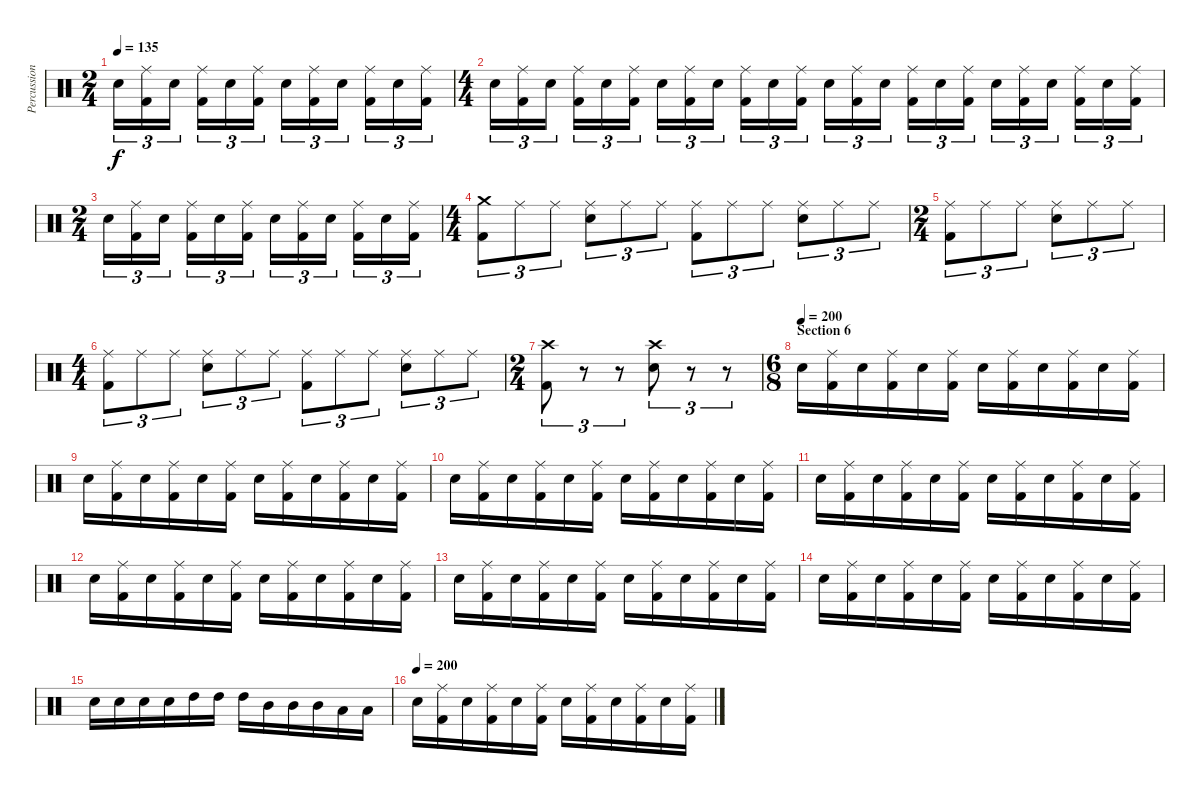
\track ("Percussion" "Percussion") {instrument percussion}
\staff {score}
\articulation defaults
\ts (2 4)
\tempo 135
\clef neutral
\ks c "Electric Snare (hit)".16{tu (3 2) dy f}
("Ride (middle)" "Kick (hit) 2").16{tu (3 2)} "Electric Snare (hit)".16{tu (3 2)} ("Ride (middle)" "Kick (hit) 2").16{tu (3 2)} "Electric Snare (hit)".16{tu (3 2)} ("Ride (middle)" "Kick (hit) 2").16{tu (3 2)} "Electric Snare (hit)".16{tu (3 2)} ("Ride (middle)" "Kick (hit) 2").16{tu (3 2)} "Electric Snare (hit)".16{tu (3 2)} ("Ride (middle)" "Kick (hit) 2").16{tu (3 2)} "Electric Snare (hit)".16{tu (3 2)} ("Ride (middle)" "Kick (hit) 2").16{tu (3 2)} |
\ts (4 4)
"Electric Snare (hit)".16{tu (3 2)} ("Ride (middle)" "Kick (hit) 2").16{tu (3 2)} "Electric Snare (hit)".16{tu (3 2)} ("Ride (middle)" "Kick (hit) 2").16{tu (3 2)} "Electric Snare (hit)".16{tu (3 2)} ("Ride (middle)" "Kick (hit) 2").16{tu (3 2)} "Electric Snare (hit)".16{tu (3 2)} ("Ride (middle)" "Kick (hit) 2").16{tu (3 2)} "Electric Snare (hit)".16{tu (3 2)} ("Ride (middle)" "Kick (hit) 2").16{tu (3 2)} "Electric Snare (hit)".16{tu (3 2)} ("Ride (middle)" "Kick (hit) 2").16{tu (3 2)} "Electric Snare (hit)".16{tu (3 2)} ("Ride (middle)" "Kick (hit) 2").16{tu (3 2)} "Electric Snare (hit)".16{tu (3 2)} ("Ride (middle)" "Kick (hit) 2").16{tu (3 2)} "Electric Snare (hit)".16{tu (3 2)} ("Ride (middle)" "Kick (hit) 2").16{tu (3 2)} "Electric Snare (hit)".16{tu (3 2)} ("Ride (middle)" "Kick (hit) 2").16{tu (3 2)} "Electric Snare (hit)".16{tu (3 2)} ("Ride (middle)" "Kick (hit) 2").16{tu (3 2)} "Electric Snare (hit)".16{tu (3 2)} ("Ride (middle)" "Kick (hit) 2").16{tu (3 2)} |
\ts (2 4)
"Electric Snare (hit)".16{tu (3 2)} ("Ride (middle)" "Kick (hit) 2").16{tu (3 2)} "Electric Snare (hit)".16{tu (3 2)} ("Ride (middle)" "Kick (hit) 2").16{tu (3 2)} "Electric Snare (hit)".16{tu (3 2)} ("Ride (middle)" "Kick (hit) 2").16{tu (3 2)} "Electric Snare (hit)".16{tu (3 2)} ("Ride (middle)" "Kick (hit) 2").16{tu (3 2)} "Electric Snare (hit)".16{tu (3 2)} ("Ride (middle)" "Kick (hit) 2").16{tu (3 2)} "Electric Snare (hit)".16{tu (3 2)} ("Ride (middle)" "Kick (hit) 2").16{tu (3 2)} |
\ts (4 4)
("Crash medium (hit)" "Kick (hit) 2").8{tu (3 2)} "Ride (middle)".8{tu (3 2)} "Ride (middle)".8{tu (3 2)} ("Ride (middle)" "Electric Snare (hit)").8{tu (3 2)} "Ride (middle)".8{tu (3 2)} "Ride (middle)".8{tu (3 2)} ("Ride (middle)" "Kick (hit) 2").8{tu (3 2)} "Ride (middle)".8{tu (3 2)} "Ride (middle)".8{tu (3 2)} ("Ride (middle)" "Electric Snare (hit)").8{tu (3 2)} "Ride (middle)".8{tu (3 2)} "Ride (middle)".8{tu (3 2)} |
\ts (2 4)
("Ride (middle)" "Kick (hit) 2").8{tu (3 2)} "Ride (middle)".8{tu (3 2)} "Ride (middle)".8{tu (3 2)} ("Ride (middle)" "Electric Snare (hit)").8{tu (3 2)} "Ride (middle)".8{tu (3 2)} "Ride (middle)".8{tu (3 2)} |
\ts (4 4)
("Ride (middle)" "Kick (hit) 2").8{tu (3 2)} "Ride (middle)".8{tu (3 2)} "Ride (middle)".8{tu (3 2)} ("Ride (middle)" "Electric Snare (hit)").8{tu (3 2)} "Ride (middle)".8{tu (3 2)} "Ride (middle)".8{tu (3 2)} ("Ride (middle)" "Kick (hit) 2").8{tu (3 2)} "Ride (middle)".8{tu (3 2)} "Ride (middle)".8{tu (3 2)} ("Ride (middle)" "Electric Snare (hit)").8{tu (3 2)} "Ride (middle)".8{tu (3 2)} "Ride (middle)".8{tu (3 2)} |
\ts (2 4)
("Crash high (hit)" "Kick (hit) 2").8{tu (3 2)} r.8{tu (3 2)} r.8{tu (3 2)} ("Crash high (hit)" "Electric Snare (hit)").8{tu (3 2)} r.8{tu (3 2)} r.8{tu (3 2)} |
\ts (6 8)
\section ("" "Section 6")
\tempo (200)
"Electric Snare (hit)".16 ("Ride (middle)" "Kick (hit) 2").16 "Electric Snare (hit)".16 ("Ride (middle)" "Kick (hit) 2").16 "Electric Snare (hit)".16 ("Ride (middle)" "Kick (hit) 2").16 "Electric Snare (hit)".16 ("Ride (middle)" "Kick (hit) 2").16 "Electric Snare (hit)".16 ("Ride (middle)" "Kick (hit) 2").16 "Electric Snare (hit)".16 ("Ride (middle)" "Kick (hit) 2").16 |
"Electric Snare (hit)".16 ("Ride (middle)" "Kick (hit) 2").16 "Electric Snare (hit)".16 ("Ride (middle)" "Kick (hit) 2").16 "Electric Snare (hit)".16 ("Ride (middle)" "Kick (hit) 2").16 "Electric Snare (hit)".16 ("Ride (middle)" "Kick (hit) 2").16 "Electric Snare (hit)".16 ("Ride (middle)" "Kick (hit) 2").16 "Electric Snare (hit)".16 ("Ride (middle)" "Kick (hit) 2").16 |
"Electric Snare (hit)".16 ("Ride (middle)" "Kick (hit) 2").16 "Electric Snare (hit)".16 ("Ride (middle)" "Kick (hit) 2").16 "Electric Snare (hit)".16 ("Ride (middle)" "Kick (hit) 2").16 "Electric Snare (hit)".16 ("Ride (middle)" "Kick (hit) 2").16 "Electric Snare (hit)".16 ("Ride (middle)" "Kick (hit) 2").16 "Electric Snare (hit)".16 ("Ride (middle)" "Kick (hit) 2").16 |
"Electric Snare (hit)".16 ("Ride (middle)" "Kick (hit) 2").16 "Electric Snare (hit)".16 ("Ride (middle)" "Kick (hit) 2").16 "Electric Snare (hit)".16 ("Ride (middle)" "Kick (hit) 2").16 "Electric Snare (hit)".16 ("Ride (middle)" "Kick (hit) 2").16 "Electric Snare (hit)".16 ("Ride (middle)" "Kick (hit) 2").16 "Electric Snare (hit)".16 ("Ride (middle)" "Kick (hit) 2").16 |
"Electric Snare (hit)".16 ("Ride (middle)" "Kick (hit) 2").16 "Electric Snare (hit)".16 ("Ride (middle)" "Kick (hit) 2").16 "Electric Snare (hit)".16 ("Ride (middle)" "Kick (hit) 2").16 "Electric Snare (hit)".16 ("Ride (middle)" "Kick (hit) 2").16 "Electric Snare (hit)".16 ("Ride (middle)" "Kick (hit) 2").16 "Electric Snare (hit)".16 ("Ride (middle)" "Kick (hit) 2").16 |
"Electric Snare (hit)".16 ("Ride (middle)" "Kick (hit) 2").16 "Electric Snare (hit)".16 ("Ride (middle)" "Kick (hit) 2").16 "Electric Snare (hit)".16 ("Ride (middle)" "Kick (hit) 2").16 "Electric Snare (hit)".16 ("Ride (middle)" "Kick (hit) 2").16 "Electric Snare (hit)".16 ("Ride (middle)" "Kick (hit) 2").16 "Electric Snare (hit)".16 ("Ride (middle)" "Kick (hit) 2").16 |
"Electric Snare (hit)".16 ("Ride (middle)" "Kick (hit) 2").16 "Electric Snare (hit)".16 ("Ride (middle)" "Kick (hit) 2").16 "Electric Snare (hit)".16 ("Ride (middle)" "Kick (hit) 2").16 "Electric Snare (hit)".16 ("Ride (middle)" "Kick (hit) 2").16 "Electric Snare (hit)".16 ("Ride (middle)" "Kick (hit) 2").16 "Electric Snare (hit)".16 ("Ride (middle)" "Kick (hit) 2").16 |
"Electric Snare (hit)".16 "Electric Snare (hit)".16 "Electric Snare (hit)".16 "Electric Snare (hit)".16 "High Tom (hit)".16 "High Tom (hit)".16 "High Tom (hit)".16 "Mid Tom (hit)".16 "Mid Tom (hit)".16 "Mid Tom (hit)".16 "Low Tom (hit)".16 "Low Tom (hit)".16 |
\tempo (200)
"Electric Snare (hit)".16 ("Ride (middle)" "Kick (hit) 2").16 "Electric Snare (hit)".16 ("Ride (middle)" "Kick (hit) 2").16 "Electric Snare (hit)".16 ("Ride (middle)" "Kick (hit) 2").16 "Electric Snare (hit)".16 ("Ride (middle)" "Kick (hit) 2").16 "Electric Snare (hit)".16 ("Ride (middle)" "Kick (hit) 2").16 "Electric Snare (hit)".16 ("Ride (middle)" "Kick (hit) 2").16
